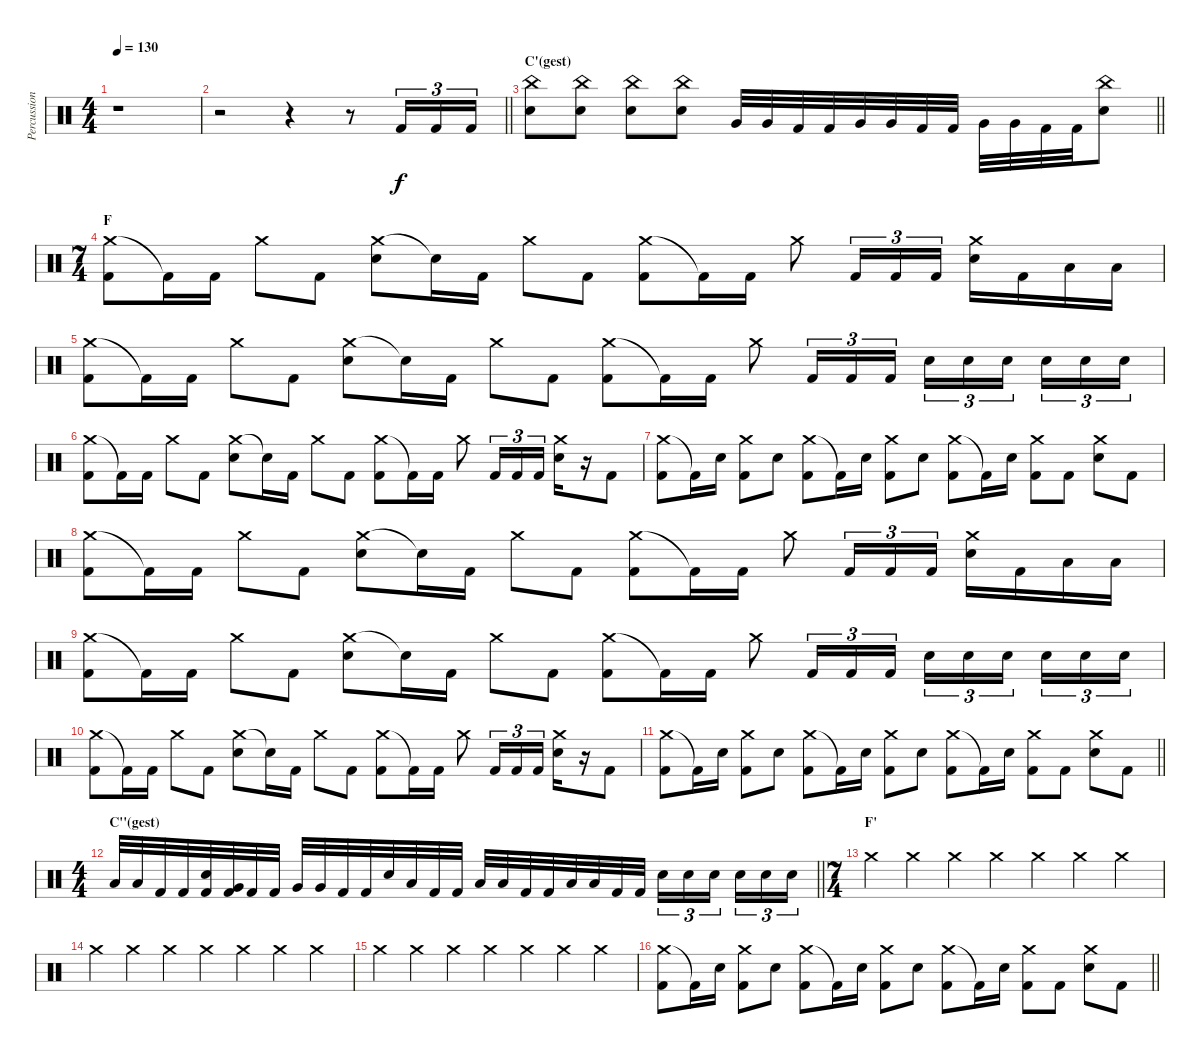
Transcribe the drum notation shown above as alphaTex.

\track ("Percussion" "Percussion") {instrument percussion}
\staff {score}
\articulation defaults
\ts (4 4)
\tempo 130
\clef neutral
\ks c
r.1{dy f} |
\barLineRight lightlight
r.2 r.4 r.8 "Kick (hit) 2".16{tu (3 2)} "Kick (hit) 2".16{tu (3 2)} "Kick (hit) 2".16{tu (3 2)} |
\section ("" "C'(gest)")
\barLineRight lightlight
("China (hit)" "Electric Snare (hit)").8 ("China (hit)" "Electric Snare (hit)").8 ("China (hit)" "Electric Snare (hit)").8 ("China (hit)" "Electric Snare (hit)").8 "Very Low Tom (hit)".32 "Very Low Tom (hit)".32 "Kick (hit) 2".32 "Kick (hit) 2".32 "Very Low Tom (hit)".32 "Very Low Tom (hit)".32 "Kick (hit) 2".32 "Kick (hit) 2".32 "Very Low Tom (hit)".32 "Very Low Tom (hit)".32 "Kick (hit) 2".32 "Kick (hit) 2".32 ("China (hit)" "Electric Snare (hit)").8 |
\ts (7 4)
\section ("" "F")
("Crash medium (hit)" "Kick (hit) 2").8 "Kick (hit) 2"{t}.16 "Kick (hit) 2".16 "Crash medium (hit)".8 "Kick (hit) 2".8 ("Crash medium (hit)" "Electric Snare (hit)").8 "Electric Snare (hit)"{t}.16 "Kick (hit) 2".16 "Crash medium (hit)".8 "Kick (hit) 2".8 ("Crash medium (hit)" "Kick (hit) 2").8 "Kick (hit) 2"{t}.16 "Kick (hit) 2".16 "Crash medium (hit)".8 "Kick (hit) 2".16{tu (3 2)} "Kick (hit) 2".16{tu (3 2)} "Kick (hit) 2".16{tu (3 2)} ("Crash medium (hit)" "Electric Snare (hit)").16 "Kick (hit) 2".16 "Low Floor Tom (hit)".16 "Low Floor Tom (hit)".16 |
("Crash medium (hit)" "Kick (hit) 2").8 "Kick (hit) 2"{t}.16 "Kick (hit) 2".16 "Crash medium (hit)".8 "Kick (hit) 2".8 ("Crash medium (hit)" "Electric Snare (hit)").8 "Electric Snare (hit)"{t}.16 "Kick (hit) 2".16 "Crash medium (hit)".8 "Kick (hit) 2".8 ("Crash medium (hit)" "Kick (hit) 2").8 "Kick (hit) 2"{t}.16 "Kick (hit) 2".16 "Crash medium (hit)".8 "Kick (hit) 2".16{tu (3 2)} "Kick (hit) 2".16{tu (3 2)} "Kick (hit) 2".16{tu (3 2)} "Electric Snare (hit)".16{tu (3 2)} "Electric Snare (hit)".16{tu (3 2)} "Electric Snare (hit)".16{tu (3 2)} "Electric Snare (hit)".16{tu (3 2)} "Electric Snare (hit)".16{tu (3 2)} "Electric Snare (hit)".16{tu (3 2)} |
("Crash medium (hit)" "Kick (hit) 2").8 "Kick (hit) 2"{t}.16 "Kick (hit) 2".16 "Crash medium (hit)".8 "Kick (hit) 2".8 ("Crash medium (hit)" "Electric Snare (hit)").8 "Electric Snare (hit)"{t}.16 "Kick (hit) 2".16 "Crash medium (hit)".8 "Kick (hit) 2".8 ("Crash medium (hit)" "Kick (hit) 2").8 "Kick (hit) 2"{t}.16 "Kick (hit) 2".16 "Crash medium (hit)".8 "Kick (hit) 2".16{tu (3 2)} "Kick (hit) 2".16{tu (3 2)} "Kick (hit) 2".16{tu (3 2)} ("Crash medium (hit)" "Electric Snare (hit)").16 r.16 "Kick (hit) 2".8 |
("Crash medium (hit)" "Kick (hit) 2").8 "Kick (hit) 2"{t}.16 "Electric Snare (hit)".16 ("Crash medium (hit)" "Kick (hit) 2").8 "Electric Snare (hit)".8 ("Crash medium (hit)" "Kick (hit) 2").8 "Kick (hit) 2"{t}.16 "Electric Snare (hit)".16 ("Crash medium (hit)" "Kick (hit) 2").8 "Electric Snare (hit)".8 ("Crash medium (hit)" "Kick (hit) 2").8 "Kick (hit) 2"{t}.16 "Electric Snare (hit)".16 ("Crash medium (hit)" "Kick (hit) 2").8 "Kick (hit) 2".8 ("Crash medium (hit)" "Electric Snare (hit)").8 "Kick (hit) 2".8 |
("Crash medium (hit)" "Kick (hit) 2").8 "Kick (hit) 2"{t}.16 "Kick (hit) 2".16 "Crash medium (hit)".8 "Kick (hit) 2".8 ("Crash medium (hit)" "Electric Snare (hit)").8 "Electric Snare (hit)"{t}.16 "Kick (hit) 2".16 "Crash medium (hit)".8 "Kick (hit) 2".8 ("Crash medium (hit)" "Kick (hit) 2").8 "Kick (hit) 2"{t}.16 "Kick (hit) 2".16 "Crash medium (hit)".8 "Kick (hit) 2".16{tu (3 2)} "Kick (hit) 2".16{tu (3 2)} "Kick (hit) 2".16{tu (3 2)} ("Crash medium (hit)" "Electric Snare (hit)").16 "Kick (hit) 2".16 "Low Floor Tom (hit)".16 "Low Floor Tom (hit)".16 |
("Crash medium (hit)" "Kick (hit) 2").8 "Kick (hit) 2"{t}.16 "Kick (hit) 2".16 "Crash medium (hit)".8 "Kick (hit) 2".8 ("Crash medium (hit)" "Electric Snare (hit)").8 "Electric Snare (hit)"{t}.16 "Kick (hit) 2".16 "Crash medium (hit)".8 "Kick (hit) 2".8 ("Crash medium (hit)" "Kick (hit) 2").8 "Kick (hit) 2"{t}.16 "Kick (hit) 2".16 "Crash medium (hit)".8 "Kick (hit) 2".16{tu (3 2)} "Kick (hit) 2".16{tu (3 2)} "Kick (hit) 2".16{tu (3 2)} "Electric Snare (hit)".16{tu (3 2)} "Electric Snare (hit)".16{tu (3 2)} "Electric Snare (hit)".16{tu (3 2)} "Electric Snare (hit)".16{tu (3 2)} "Electric Snare (hit)".16{tu (3 2)} "Electric Snare (hit)".16{tu (3 2)} |
("Crash medium (hit)" "Kick (hit) 2").8 "Kick (hit) 2"{t}.16 "Kick (hit) 2".16 "Crash medium (hit)".8 "Kick (hit) 2".8 ("Crash medium (hit)" "Electric Snare (hit)").8 "Electric Snare (hit)"{t}.16 "Kick (hit) 2".16 "Crash medium (hit)".8 "Kick (hit) 2".8 ("Crash medium (hit)" "Kick (hit) 2").8 "Kick (hit) 2"{t}.16 "Kick (hit) 2".16 "Crash medium (hit)".8 "Kick (hit) 2".16{tu (3 2)} "Kick (hit) 2".16{tu (3 2)} "Kick (hit) 2".16{tu (3 2)} ("Crash medium (hit)" "Electric Snare (hit)").16 r.16 "Kick (hit) 2".8 |
\barLineRight lightlight
("Crash medium (hit)" "Kick (hit) 2").8 "Kick (hit) 2"{t}.16 "Electric Snare (hit)".16 ("Crash medium (hit)" "Kick (hit) 2").8 "Electric Snare (hit)".8 ("Crash medium (hit)" "Kick (hit) 2").8 "Kick (hit) 2"{t}.16 "Electric Snare (hit)".16 ("Crash medium (hit)" "Kick (hit) 2").8 "Electric Snare (hit)".8 ("Crash medium (hit)" "Kick (hit) 2").8 "Kick (hit) 2"{t}.16 "Electric Snare (hit)".16 ("Crash medium (hit)" "Kick (hit) 2").8 "Kick (hit) 2".8 ("Crash medium (hit)" "Electric Snare (hit)").8 "Kick (hit) 2".8 |
\ts (4 4)
\section ("" "C''(gest)")
\barLineRight lightlight "Low Tom (hit)".32 "Low Tom (hit)".32 "Kick (hit) 2".32 "Kick (hit) 2".32
("Electric Snare (hit)" "Kick (hit) 2").32 ("Very Low Tom (hit)" "Kick (hit) 2").32 "Kick (hit) 2".32 "Kick (hit) 2".32 "Very Low Tom (hit)".32 "Very Low Tom (hit)".32 "Kick (hit) 2".32 "Kick (hit) 2".32 "Electric Snare (hit)".32 "Low Floor Tom (hit)".32 "Kick (hit) 2".32 "Kick (hit) 2".32 "Low Floor Tom (hit)".32 "Low Floor Tom (hit)".32 "Kick (hit) 2".32 "Kick (hit) 2".32 "Low Floor Tom (hit)".32 "Low Floor Tom (hit)".32 "Kick (hit) 2".32 "Kick (hit) 2".32 "Electric Snare (hit)".16{tu (3 2)} "Electric Snare (hit)".16{tu (3 2)} "Electric Snare (hit)".16{tu (3 2)} "Electric Snare (hit)".16{tu (3 2)} "Electric Snare (hit)".16{tu (3 2)} "Electric Snare (hit)".16{tu (3 2)} |
\ts (7 4)
\section ("" "F'")
"Crash medium (hit)".4 "Crash medium (hit)".4 "Crash medium (hit)".4 "Crash medium (hit)".4 "Crash medium (hit)".4 "Crash medium (hit)".4 "Crash medium (hit)".4 |
"Crash medium (hit)".4 "Crash medium (hit)".4 "Crash medium (hit)".4 "Crash medium (hit)".4 "Crash medium (hit)".4 "Crash medium (hit)".4 "Crash medium (hit)".4 |
"Crash medium (hit)".4 "Crash medium (hit)".4 "Crash medium (hit)".4 "Crash medium (hit)".4 "Crash medium (hit)".4 "Crash medium (hit)".4 "Crash medium (hit)".4 |
\barLineRight lightlight
("Crash medium (hit)" "Kick (hit) 2").8 "Kick (hit) 2"{t}.16 "Electric Snare (hit)".16 ("Crash medium (hit)" "Kick (hit) 2").8 "Electric Snare (hit)".8 ("Crash medium (hit)" "Kick (hit) 2").8 "Kick (hit) 2"{t}.16 "Electric Snare (hit)".16 ("Crash medium (hit)" "Kick (hit) 2").8 "Electric Snare (hit)".8 ("Crash medium (hit)" "Kick (hit) 2").8 "Kick (hit) 2"{t}.16 "Electric Snare (hit)".16 ("Crash medium (hit)" "Kick (hit) 2").8 "Kick (hit) 2".8 ("Crash medium (hit)" "Electric Snare (hit)").8 "Kick (hit) 2".8
